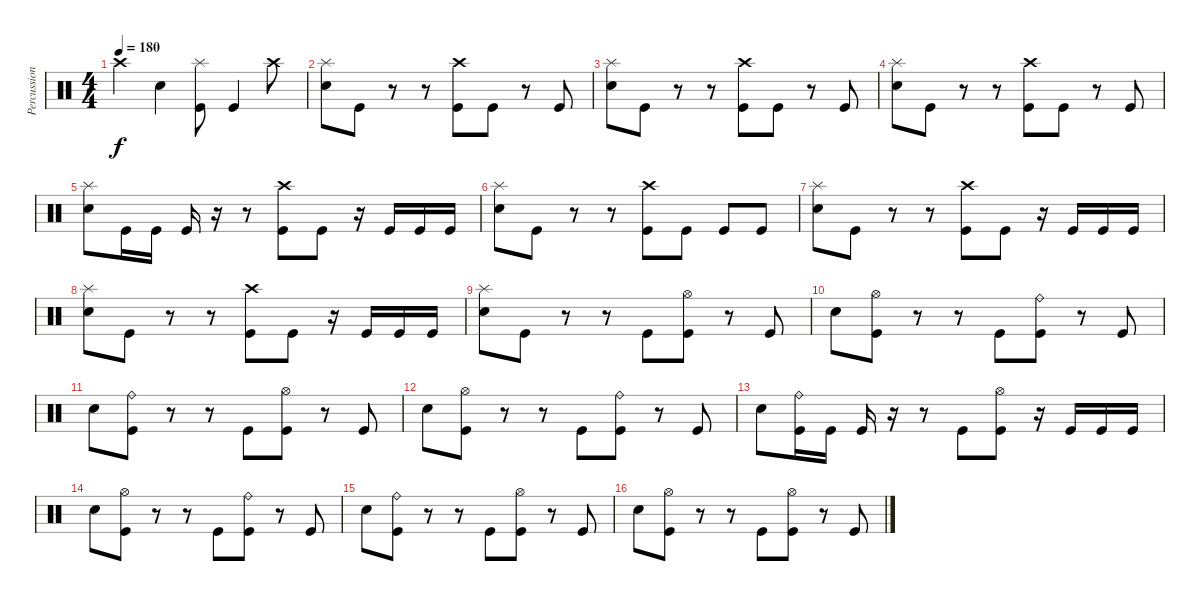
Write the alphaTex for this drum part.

\track ("Percussion" "Percussion") {instrument percussion}
\staff {score}
\articulation defaults
\ts (4 4)
\tempo 180
\clef neutral
\ks c "Crash high (hit)".4{dy f} "Snare (hit) 2".4
("Splash (hit)" "Kick (hit)").8 "Kick (hit)".4 "Crash high (hit)".8 |
("Splash (hit)" "Snare (hit) 2").8 "Kick (hit)".8 r.8 r.8 ("Crash high (hit)" "Kick (hit)").8 "Kick (hit)".8 r.8 "Kick (hit)".8 |
("Splash (hit)" "Snare (hit) 2").8 "Kick (hit)".8 r.8 r.8 ("Crash high (hit)" "Kick (hit)").8 "Kick (hit)".8 r.8 "Kick (hit)".8 |
("Splash (hit)" "Snare (hit) 2").8 "Kick (hit)".8 r.8 r.8 ("Crash high (hit)" "Kick (hit)").8 "Kick (hit)".8 r.8 "Kick (hit)".8 |
("Splash (hit)" "Snare (hit) 2").8 "Kick (hit)".16 "Kick (hit)".16 "Kick (hit)".16 r.16 r.8 ("Crash high (hit)" "Kick (hit)").8 "Kick (hit)".8 r.16 "Kick (hit)".16 "Kick (hit)".16 "Kick (hit)".16 |
("Splash (hit)" "Snare (hit) 2").8 "Kick (hit)".8 r.8 r.8 ("Crash high (hit)" "Kick (hit)").8 "Kick (hit)".8 "Kick (hit)".8 "Kick (hit)".8 |
("Splash (hit)" "Snare (hit) 2").8 "Kick (hit)".8 r.8 r.8 ("Crash high (hit)" "Kick (hit)").8 "Kick (hit)".8 r.16 "Kick (hit)".16 "Kick (hit)".16 "Kick (hit)".16 |
("Splash (hit)" "Snare (hit) 2").8 "Kick (hit)".8 r.8 r.8 ("Crash high (hit)" "Kick (hit)").8 "Kick (hit)".8 r.16 "Kick (hit)".16 "Kick (hit)".16 "Kick (hit)".16 |
("Splash (hit)" "Snare (hit) 2").8 "Kick (hit)".8 r.8 r.8 "Kick (hit)".8 ("Hi-Hat (open)" "Kick (hit)").8 r.8 "Kick (hit)".8 |
"Snare (hit) 2".8 ("Hi-Hat (open)" "Kick (hit)").8 r.8 r.8 "Kick (hit)".8 ("Ride (bell)" "Kick (hit)").8 r.8 "Kick (hit)".8 |
"Snare (hit) 2".8 ("Ride (bell)" "Kick (hit)").8 r.8 r.8 "Kick (hit)".8 ("Hi-Hat (open)" "Kick (hit)").8 r.8 "Kick (hit)".8 |
"Snare (hit) 2".8 ("Hi-Hat (open)" "Kick (hit)").8 r.8 r.8 "Kick (hit)".8 ("Ride (bell)" "Kick (hit)").8 r.8 "Kick (hit)".8 |
"Snare (hit) 2".8 ("Ride (bell)" "Kick (hit)").16 "Kick (hit)".16 "Kick (hit)".16 r.16 r.8 "Kick (hit)".8 ("Hi-Hat (open)" "Kick (hit)").8 r.16 "Kick (hit)".16 "Kick (hit)".16 "Kick (hit)".16 |
"Snare (hit) 2".8 ("Hi-Hat (open)" "Kick (hit)").8 r.8 r.8 "Kick (hit)".8 ("Ride (bell)" "Kick (hit)").8 r.8 "Kick (hit)".8 |
"Snare (hit) 2".8 ("Ride (bell)" "Kick (hit)").8 r.8 r.8 "Kick (hit)".8 ("Hi-Hat (open)" "Kick (hit)").8 r.8 "Kick (hit)".8 |
"Snare (hit) 2".8 ("Hi-Hat (open)" "Kick (hit)").8 r.8 r.8 "Kick (hit)".8 ("Hi-Hat (open)" "Kick (hit)").8 r.8 "Kick (hit)".8
